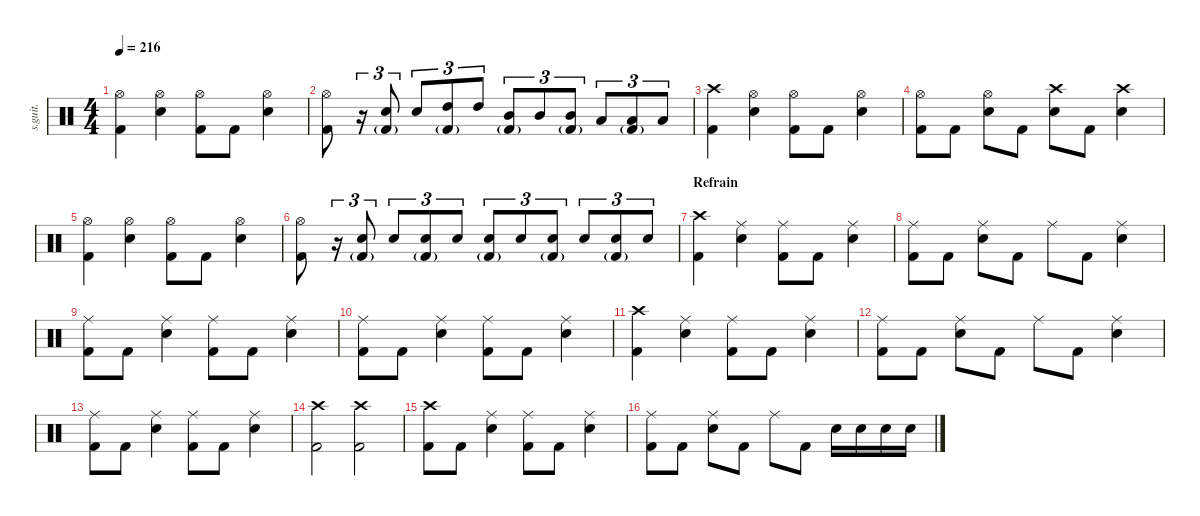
\defaultSystemsLayout 4
\hideDynamics
\bracketExtendMode nobrackets
\track ("Jesus Bonehead | Drums" "s.guit.") {instrument percussion}
\staff {score}
\articulation defaults
\ts (4 4)
\tempo 216
\clef neutral
\ks c
("Hi-Hat (open)" "Kick (hit) 2").4{dy f} ("Hi-Hat (open)" "Snare (hit) 2").4 ("Hi-Hat (open)" "Kick (hit) 2").8 "Kick (hit) 2".8 ("Hi-Hat (open)" "Snare (hit) 2").4 |
("Hi-Hat (open)" "Kick (hit) 2").8 r.16{tu (3 2)} ("Snare (hit) 2" "Kick (hit) 2"{g}).8{tu (3 2)} "Snare (hit) 2".8{tu (3 2)} ("High Tom (hit)" "Kick (hit) 2"{g}).8{tu (3 2)} "High Tom (hit)".8{tu (3 2)} ("Mid Tom (hit)" "Kick (hit) 2"{g}).8{tu (3 2)} "Mid Tom (hit)".8{tu (3 2)} ("Mid Tom (hit)" "Kick (hit) 2"{g}).8{tu (3 2)} "Low Floor Tom (hit)".8{tu (3 2)} ("Low Floor Tom (hit)" "Kick (hit) 2"{g}).8{tu (3 2)} "Low Floor Tom (hit)".8{tu (3 2)} |
("Crash high (hit)" "Kick (hit) 2").4 ("Hi-Hat (open)" "Snare (hit) 2").4 ("Hi-Hat (open)" "Kick (hit) 2").8 "Kick (hit) 2".8 ("Hi-Hat (open)" "Snare (hit) 2").4 |
("Hi-Hat (open)" "Kick (hit) 2").8 "Kick (hit) 2".8 ("Hi-Hat (open)" "Snare (hit) 2").8 "Kick (hit) 2".8 ("Crash high (hit)" "Snare (hit) 2").8 "Kick (hit) 2".8 ("Crash high (hit)" "Snare (hit) 2").4 |
("Hi-Hat (open)" "Kick (hit) 2").4 ("Hi-Hat (open)" "Snare (hit) 2").4 ("Hi-Hat (open)" "Kick (hit) 2").8 "Kick (hit) 2".8 ("Hi-Hat (open)" "Snare (hit) 2").4 |
("Hi-Hat (open)" "Kick (hit) 2").8 r.16{tu (3 2)} ("Snare (hit) 2" "Kick (hit) 2"{g}).8{tu (3 2)} "Snare (hit) 2".8{tu (3 2)} ("Snare (hit) 2" "Kick (hit) 2"{g}).8{tu (3 2)} "Snare (hit) 2".8{tu (3 2)} ("Snare (hit) 2" "Kick (hit) 2"{g}).8{tu (3 2)} "Snare (hit) 2".8{tu (3 2)} ("Snare (hit) 2" "Kick (hit) 2"{g}).8{tu (3 2)} "Snare (hit) 2".8{tu (3 2)} ("Snare (hit) 2" "Kick (hit) 2"{g}).8{tu (3 2)} "Snare (hit) 2".8{tu (3 2)} |
\section ("" "Refrain")
("Crash high (hit)" "Kick (hit) 2").4 ("Ride (middle)" "Snare (hit) 2").4 ("Ride (middle)" "Kick (hit) 2").8 "Kick (hit) 2".8 ("Ride (middle)" "Snare (hit) 2").4 |
("Ride (middle)" "Kick (hit) 2").8 "Kick (hit) 2".8 ("Ride (middle)" "Snare (hit) 2").8 "Kick (hit) 2".8 "Ride (middle)".8 "Kick (hit) 2".8 ("Ride (middle)" "Snare (hit) 2").4 |
("Ride (middle)" "Kick (hit) 2").8 "Kick (hit) 2".8 ("Ride (middle)" "Snare (hit) 2").4 ("Ride (middle)" "Kick (hit) 2").8 "Kick (hit) 2".8 ("Ride (middle)" "Snare (hit) 2").4 |
("Ride (middle)" "Kick (hit) 2").8 "Kick (hit) 2".8 ("Ride (middle)" "Snare (hit) 2").4 ("Ride (middle)" "Kick (hit) 2").8 "Kick (hit) 2".8 ("Ride (middle)" "Snare (hit) 2").4 |
("Crash high (hit)" "Kick (hit) 2").4 ("Ride (middle)" "Snare (hit) 2").4 ("Ride (middle)" "Kick (hit) 2").8 "Kick (hit) 2".8 ("Ride (middle)" "Snare (hit) 2").4 |
("Ride (middle)" "Kick (hit) 2").8 "Kick (hit) 2".8 ("Ride (middle)" "Snare (hit) 2").8 "Kick (hit) 2".8 "Ride (middle)".8 "Kick (hit) 2".8 ("Ride (middle)" "Snare (hit) 2").4 |
("Ride (middle)" "Kick (hit) 2").8 "Kick (hit) 2".8 ("Ride (middle)" "Snare (hit) 2").4 ("Ride (middle)" "Kick (hit) 2").8 "Kick (hit) 2".8 ("Ride (middle)" "Snare (hit) 2").4 |
("Crash high (hit)" "Kick (hit) 2").2 ("Crash high (hit)" "Kick (hit) 2").2 |
("Crash high (hit)" "Kick (hit) 2").8 "Kick (hit) 2".8 ("Ride (middle)" "Snare (hit) 2").4 ("Ride (middle)" "Kick (hit) 2").8 "Kick (hit) 2".8 ("Ride (middle)" "Snare (hit) 2").4 |
("Ride (middle)" "Kick (hit) 2").8 "Kick (hit) 2".8 ("Ride (middle)" "Snare (hit) 2").8 "Kick (hit) 2".8 "Ride (middle)".8 "Kick (hit) 2".8 "Snare (hit) 2".16 "Snare (hit) 2".16 "Snare (hit) 2".16 "Snare (hit) 2".16
